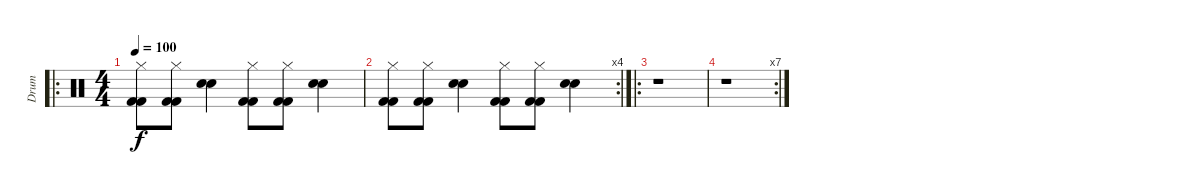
\track ("Drum" "Drum") {instrument percussion}
\staff {score}
\articulation defaults
\ro
\ts (4 4)
\tempo 100
\clef neutral
\ks c
("Kick (hit) 2" "Kick (hit) 2" "Hi-Hat (closed)").8{dy f} ("Kick (hit) 2" "Kick (hit) 2" "Hi-Hat (closed)").8 ("Snare (hit) 2" "Snare (hit) 2").4 ("Kick (hit) 2" "Kick (hit) 2" "Hi-Hat (closed)").8 ("Kick (hit) 2" "Kick (hit) 2" "Hi-Hat (closed)").8 ("Snare (hit) 2" "Snare (hit) 2").4 |
\rc 4
("Kick (hit) 2" "Kick (hit) 2" "Hi-Hat (closed)").8 ("Kick (hit) 2" "Kick (hit) 2" "Hi-Hat (closed)").8 ("Snare (hit) 2" "Snare (hit) 2").4 ("Kick (hit) 2" "Kick (hit) 2" "Hi-Hat (closed)").8 ("Kick (hit) 2" "Kick (hit) 2" "Hi-Hat (closed)").8 ("Snare (hit) 2" "Snare (hit) 2").4 |
\ro
r.1 |
\rc 7
r.1
